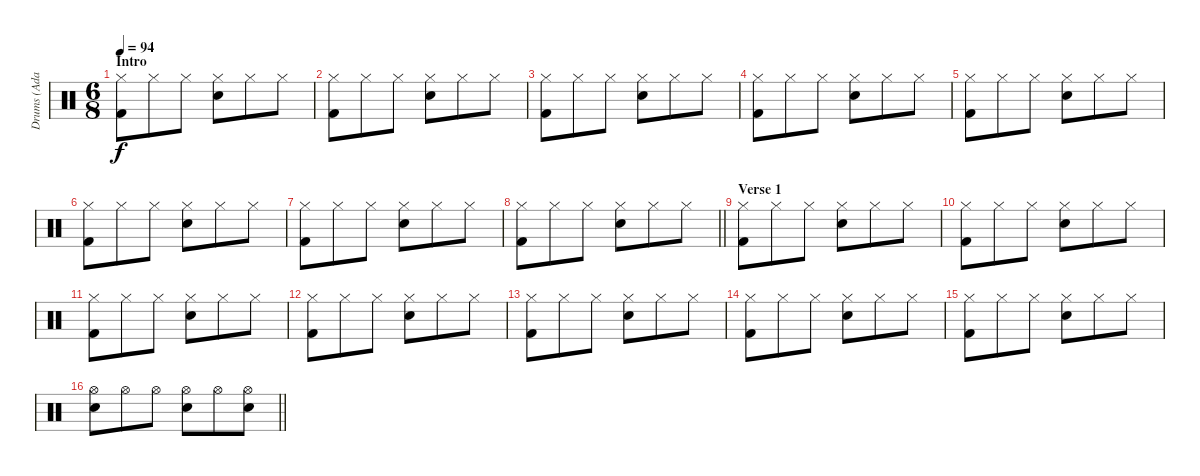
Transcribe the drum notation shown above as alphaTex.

\track ("Drums (Adam)" "Drums (Ada") {instrument percussion}
\staff {score}
\articulation defaults
\ts (6 8)
\section ("" "Intro")
\tempo 94
\clef neutral
\ks c
("Hi-Hat (closed)" "Kick (hit) 2").8{dy f} "Hi-Hat (closed)".8 "Hi-Hat (closed)".8 ("Hi-Hat (closed)" "Snare (hit) 2").8 "Hi-Hat (closed)".8 "Hi-Hat (closed)".8 |
("Hi-Hat (closed)" "Kick (hit) 2").8 "Hi-Hat (closed)".8 "Hi-Hat (closed)".8 ("Hi-Hat (closed)" "Snare (hit) 2").8 "Hi-Hat (closed)".8 "Hi-Hat (closed)".8 |
("Hi-Hat (closed)" "Kick (hit) 2").8 "Hi-Hat (closed)".8 "Hi-Hat (closed)".8 ("Hi-Hat (closed)" "Snare (hit) 2").8 "Hi-Hat (closed)".8 "Hi-Hat (closed)".8 |
("Hi-Hat (closed)" "Kick (hit) 2").8 "Hi-Hat (closed)".8 "Hi-Hat (closed)".8 ("Hi-Hat (closed)" "Snare (hit) 2").8 "Hi-Hat (closed)".8 "Hi-Hat (closed)".8 |
("Hi-Hat (closed)" "Kick (hit) 2").8 "Hi-Hat (closed)".8 "Hi-Hat (closed)".8 ("Hi-Hat (closed)" "Snare (hit) 2").8 "Hi-Hat (closed)".8 "Hi-Hat (closed)".8 |
("Hi-Hat (closed)" "Kick (hit) 2").8 "Hi-Hat (closed)".8 "Hi-Hat (closed)".8 ("Hi-Hat (closed)" "Snare (hit) 2").8 "Hi-Hat (closed)".8 "Hi-Hat (closed)".8 |
("Hi-Hat (closed)" "Kick (hit) 2").8 "Hi-Hat (closed)".8 "Hi-Hat (closed)".8 ("Hi-Hat (closed)" "Snare (hit) 2").8 "Hi-Hat (closed)".8 "Hi-Hat (closed)".8 |
\barLineRight lightlight
("Hi-Hat (closed)" "Kick (hit) 2").8 "Hi-Hat (closed)".8 "Hi-Hat (closed)".8 ("Hi-Hat (closed)" "Snare (hit) 2").8 "Hi-Hat (closed)".8 "Hi-Hat (closed)".8 |
\section ("" "Verse 1")
("Hi-Hat (closed)" "Kick (hit) 2").8 "Hi-Hat (closed)".8 "Hi-Hat (closed)".8 ("Hi-Hat (closed)" "Snare (hit) 2").8 "Hi-Hat (closed)".8 "Hi-Hat (closed)".8 |
("Hi-Hat (closed)" "Kick (hit) 2").8 "Hi-Hat (closed)".8 "Hi-Hat (closed)".8 ("Hi-Hat (closed)" "Snare (hit) 2").8 "Hi-Hat (closed)".8 "Hi-Hat (closed)".8 |
("Hi-Hat (closed)" "Kick (hit) 2").8 "Hi-Hat (closed)".8 "Hi-Hat (closed)".8 ("Hi-Hat (closed)" "Snare (hit) 2").8 "Hi-Hat (closed)".8 "Hi-Hat (closed)".8 |
("Hi-Hat (closed)" "Kick (hit) 2").8 "Hi-Hat (closed)".8 "Hi-Hat (closed)".8 ("Hi-Hat (closed)" "Snare (hit) 2").8 "Hi-Hat (closed)".8 "Hi-Hat (closed)".8 |
("Hi-Hat (closed)" "Kick (hit) 2").8 "Hi-Hat (closed)".8 "Hi-Hat (closed)".8 ("Hi-Hat (closed)" "Snare (hit) 2").8 "Hi-Hat (closed)".8 "Hi-Hat (closed)".8 |
("Hi-Hat (closed)" "Kick (hit) 2").8 "Hi-Hat (closed)".8 "Hi-Hat (closed)".8 ("Hi-Hat (closed)" "Snare (hit) 2").8 "Hi-Hat (closed)".8 "Hi-Hat (closed)".8 |
("Hi-Hat (closed)" "Kick (hit) 2").8 "Hi-Hat (closed)".8 "Hi-Hat (closed)".8 ("Hi-Hat (closed)" "Snare (hit) 2").8 "Hi-Hat (closed)".8 "Hi-Hat (closed)".8 |
\barLineRight lightlight
("Hi-Hat (open)" "Snare (hit) 2").8 "Hi-Hat (open)".8 "Hi-Hat (open)".8 ("Hi-Hat (open)" "Snare (hit) 2").8 "Hi-Hat (open)".8 ("Hi-Hat (open)" "Snare (hit) 2").8
